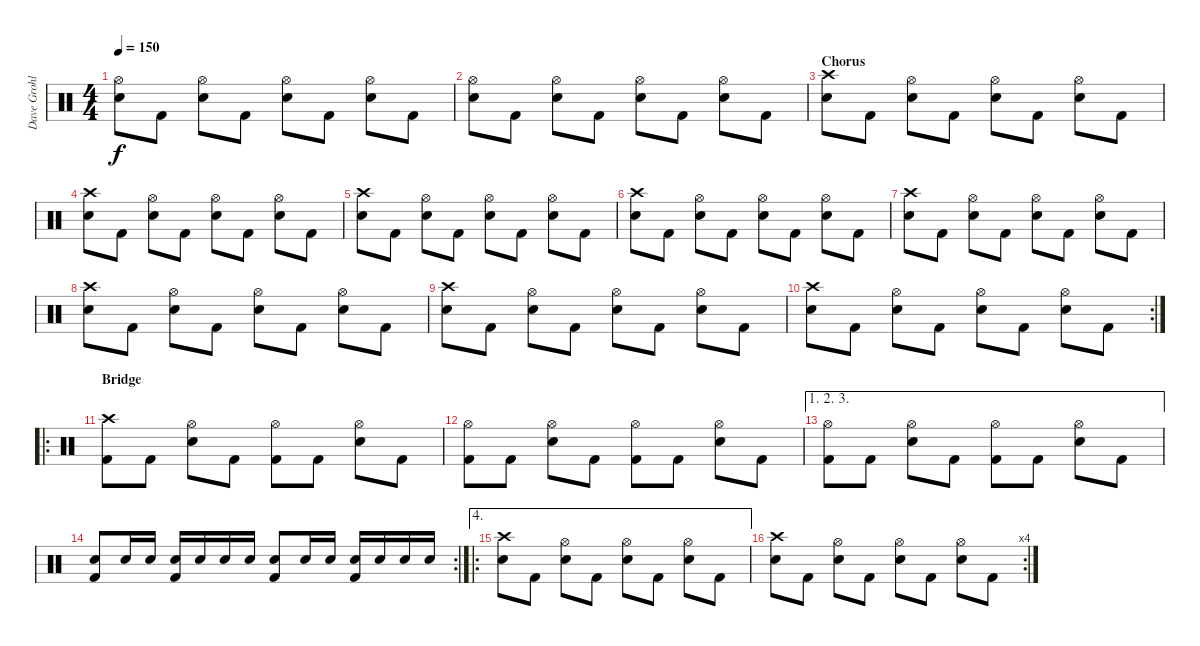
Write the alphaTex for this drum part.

\track ("Dave Grohl" "Dave Grohl") {instrument percussion}
\staff {score}
\articulation defaults
\ts (4 4)
\tempo 150
\clef neutral
\ks c
("Hi-Hat (open)" "Electric Snare (hit)").8{dy f} "Kick (hit) 2".8 ("Hi-Hat (open)" "Electric Snare (hit)").8 "Kick (hit) 2".8 ("Hi-Hat (open)" "Electric Snare (hit)").8 "Kick (hit) 2".8 ("Hi-Hat (open)" "Electric Snare (hit)").8 "Kick (hit) 2".8 |
("Hi-Hat (open)" "Electric Snare (hit)").8 "Kick (hit) 2".8 ("Hi-Hat (open)" "Electric Snare (hit)").8 "Kick (hit) 2".8 ("Hi-Hat (open)" "Electric Snare (hit)").8 "Kick (hit) 2".8 ("Hi-Hat (open)" "Electric Snare (hit)").8 "Kick (hit) 2".8 |
\section ("" "Chorus")
("Crash high (hit)" "Electric Snare (hit)").8 "Kick (hit) 2".8 ("Hi-Hat (open)" "Electric Snare (hit)").8 "Kick (hit) 2".8 ("Hi-Hat (open)" "Electric Snare (hit)").8 "Kick (hit) 2".8 ("Hi-Hat (open)" "Electric Snare (hit)").8 "Kick (hit) 2".8 |
("Crash high (hit)" "Electric Snare (hit)").8 "Kick (hit) 2".8 ("Hi-Hat (open)" "Electric Snare (hit)").8 "Kick (hit) 2".8 ("Hi-Hat (open)" "Electric Snare (hit)").8 "Kick (hit) 2".8 ("Hi-Hat (open)" "Electric Snare (hit)").8 "Kick (hit) 2".8 |
("Crash high (hit)" "Electric Snare (hit)").8 "Kick (hit) 2".8 ("Hi-Hat (open)" "Electric Snare (hit)").8 "Kick (hit) 2".8 ("Hi-Hat (open)" "Electric Snare (hit)").8 "Kick (hit) 2".8 ("Hi-Hat (open)" "Electric Snare (hit)").8 "Kick (hit) 2".8 |
("Crash high (hit)" "Electric Snare (hit)").8 "Kick (hit) 2".8 ("Hi-Hat (open)" "Electric Snare (hit)").8 "Kick (hit) 2".8 ("Hi-Hat (open)" "Electric Snare (hit)").8 "Kick (hit) 2".8 ("Hi-Hat (open)" "Electric Snare (hit)").8 "Kick (hit) 2".8 |
("Crash high (hit)" "Electric Snare (hit)").8 "Kick (hit) 2".8 ("Hi-Hat (open)" "Electric Snare (hit)").8 "Kick (hit) 2".8 ("Hi-Hat (open)" "Electric Snare (hit)").8 "Kick (hit) 2".8 ("Hi-Hat (open)" "Electric Snare (hit)").8 "Kick (hit) 2".8 |
("Crash high (hit)" "Electric Snare (hit)").8 "Kick (hit) 2".8 ("Hi-Hat (open)" "Electric Snare (hit)").8 "Kick (hit) 2".8 ("Hi-Hat (open)" "Electric Snare (hit)").8 "Kick (hit) 2".8 ("Hi-Hat (open)" "Electric Snare (hit)").8 "Kick (hit) 2".8 |
("Crash high (hit)" "Electric Snare (hit)").8 "Kick (hit) 2".8 ("Hi-Hat (open)" "Electric Snare (hit)").8 "Kick (hit) 2".8 ("Hi-Hat (open)" "Electric Snare (hit)").8 "Kick (hit) 2".8 ("Hi-Hat (open)" "Electric Snare (hit)").8 "Kick (hit) 2".8 |
\rc 2
("Crash high (hit)" "Electric Snare (hit)").8 "Kick (hit) 2".8 ("Hi-Hat (open)" "Electric Snare (hit)").8 "Kick (hit) 2".8 ("Hi-Hat (open)" "Electric Snare (hit)").8 "Kick (hit) 2".8 ("Hi-Hat (open)" "Electric Snare (hit)").8 "Kick (hit) 2".8 |
\ro
\section ("" "Bridge")
("Crash high (hit)" "Kick (hit) 2").8 "Kick (hit) 2".8 ("Hi-Hat (open)" "Electric Snare (hit)").8 "Kick (hit) 2".8 ("Hi-Hat (open)" "Kick (hit) 2").8 "Kick (hit) 2".8 ("Hi-Hat (open)" "Electric Snare (hit)").8 "Kick (hit) 2".8 |
("Hi-Hat (open)" "Kick (hit) 2").8 "Kick (hit) 2".8 ("Hi-Hat (open)" "Electric Snare (hit)").8 "Kick (hit) 2".8 ("Hi-Hat (open)" "Kick (hit) 2").8 "Kick (hit) 2".8 ("Hi-Hat (open)" "Electric Snare (hit)").8 "Kick (hit) 2".8 |
\ae (1 2 3)
("Hi-Hat (open)" "Kick (hit) 2").8 "Kick (hit) 2".8 ("Hi-Hat (open)" "Electric Snare (hit)").8 "Kick (hit) 2".8 ("Hi-Hat (open)" "Kick (hit) 2").8 "Kick (hit) 2".8 ("Hi-Hat (open)" "Electric Snare (hit)").8 "Kick (hit) 2".8 |
\rc 2
("Electric Snare (hit)" "Kick (hit) 2").8 "Electric Snare (hit)".16 "Electric Snare (hit)".16 ("Electric Snare (hit)" "Kick (hit) 2").16 "Electric Snare (hit)".16 "Electric Snare (hit)".16 "Electric Snare (hit)".16 ("Electric Snare (hit)" "Kick (hit) 2").8 "Electric Snare (hit)".16 "Electric Snare (hit)".16 ("Electric Snare (hit)" "Kick (hit) 2").16 "Electric Snare (hit)".16 "Electric Snare (hit)".16 "Electric Snare (hit)".16 |
\ae 4
\ro
("Crash high (hit)" "Electric Snare (hit)").8 "Kick (hit) 2".8 ("Hi-Hat (open)" "Electric Snare (hit)").8 "Kick (hit) 2".8 ("Hi-Hat (open)" "Electric Snare (hit)").8 "Kick (hit) 2".8 ("Hi-Hat (open)" "Electric Snare (hit)").8 "Kick (hit) 2".8 |
\rc 4
("Crash high (hit)" "Electric Snare (hit)").8 "Kick (hit) 2".8 ("Hi-Hat (open)" "Electric Snare (hit)").8 "Kick (hit) 2".8 ("Hi-Hat (open)" "Electric Snare (hit)").8 "Kick (hit) 2".8 ("Hi-Hat (open)" "Electric Snare (hit)").8 "Kick (hit) 2".8
